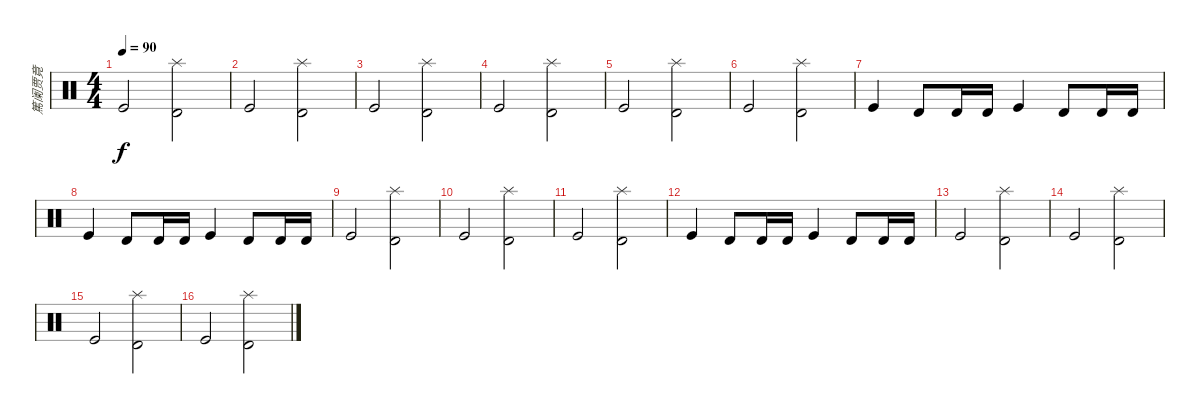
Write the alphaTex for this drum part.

\track ("篤阑贾竟" "篤阑贾竟") {instrument percussion}
\staff {score}
\articulation defaults
\ts (4 4)
\tempo 90
\clef neutral
\ks c "Kick (hit)".2{dy f}
("Timbale high (hit)" "Splash (hit)").2 |
"Kick (hit)".2 ("Timbale high (hit)" "Splash (hit)").2 |
"Kick (hit)".2 ("Timbale high (hit)" "Splash (hit)").2 |
"Kick (hit)".2 ("Timbale high (hit)" "Splash (hit)").2 |
"Kick (hit)".2 ("Timbale high (hit)" "Splash (hit)").2 |
"Kick (hit)".2 ("Timbale high (hit)" "Splash (hit)").2 |
"Kick (hit)".4 "Timbale high (hit)".8 "Timbale high (hit)".16 "Timbale high (hit)".16 "Kick (hit)".4 "Timbale high (hit)".8 "Timbale high (hit)".16 "Timbale high (hit)".16 |
"Kick (hit)".4 "Timbale high (hit)".8 "Timbale high (hit)".16 "Timbale high (hit)".16 "Kick (hit)".4 "Timbale high (hit)".8 "Timbale high (hit)".16 "Timbale high (hit)".16 |
"Kick (hit)".2 ("Timbale high (hit)" "Splash (hit)").2 |
"Kick (hit)".2 ("Timbale high (hit)" "Splash (hit)").2 |
"Kick (hit)".2 ("Timbale high (hit)" "Splash (hit)").2 |
"Kick (hit)".4 "Timbale high (hit)".8 "Timbale high (hit)".16 "Timbale high (hit)".16 "Kick (hit)".4 "Timbale high (hit)".8 "Timbale high (hit)".16 "Timbale high (hit)".16 |
"Kick (hit)".2 ("Timbale high (hit)" "Splash (hit)").2 |
"Kick (hit)".2 ("Timbale high (hit)" "Splash (hit)").2 |
"Kick (hit)".2 ("Timbale high (hit)" "Splash (hit)").2 |
"Kick (hit)".2 ("Timbale high (hit)" "Splash (hit)").2
